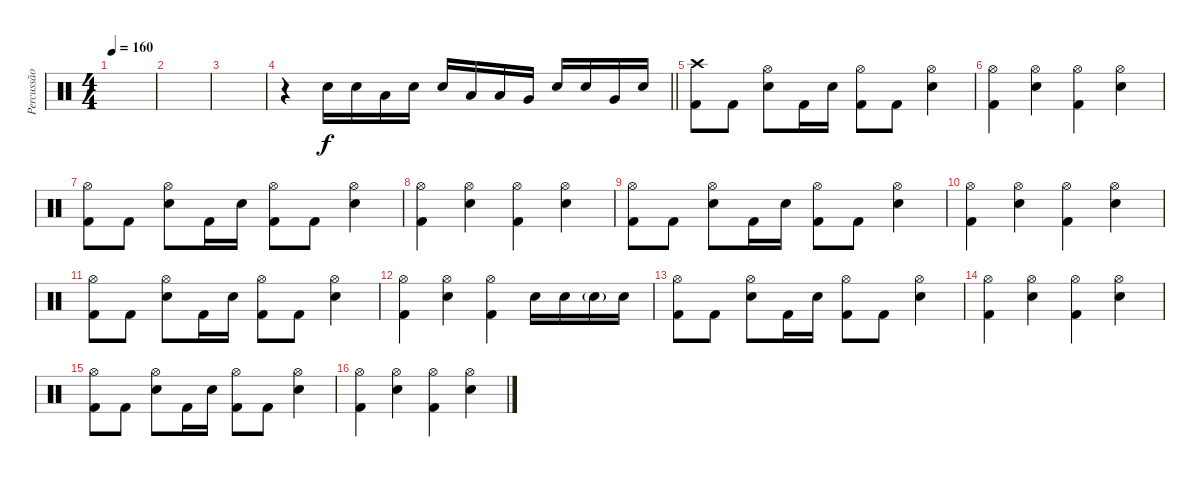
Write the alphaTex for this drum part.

\track ("Percussão" "Percussão") {instrument percussion}
\staff {score}
\articulation defaults
\ts (4 4)
\tempo 160
\clef neutral
\ks c
|
|
|
\barLineRight lightlight
r.4 "Electric Snare (hit)".16 "Electric Snare (hit)".16 "Low Tom (hit)".16 "Electric Snare (hit)".16 "Electric Snare (hit)".16 "Low Tom (hit)".16 "Low Tom (hit)".16 "Very Low Tom (hit)".16 "Electric Snare (hit)".16 "Electric Snare (hit)".16 "Very Low Tom (hit)".16 "Electric Snare (hit)".16 |
("Crash high (hit)" "Kick (hit) 2").8 "Kick (hit) 2".8 ("Hi-Hat (open)" "Electric Snare (hit)").8 "Kick (hit) 2".16 "Electric Snare (hit)".16 ("Hi-Hat (open)" "Kick (hit) 2").8 "Kick (hit) 2".8 ("Hi-Hat (open)" "Electric Snare (hit)").4 |
("Hi-Hat (open)" "Kick (hit) 2").4 ("Hi-Hat (open)" "Electric Snare (hit)").4 ("Hi-Hat (open)" "Kick (hit) 2").4 ("Hi-Hat (open)" "Electric Snare (hit)").4 |
("Hi-Hat (open)" "Kick (hit) 2").8 "Kick (hit) 2".8 ("Hi-Hat (open)" "Electric Snare (hit)").8 "Kick (hit) 2".16 "Electric Snare (hit)".16 ("Hi-Hat (open)" "Kick (hit) 2").8 "Kick (hit) 2".8 ("Hi-Hat (open)" "Electric Snare (hit)").4 |
("Hi-Hat (open)" "Kick (hit) 2").4 ("Hi-Hat (open)" "Electric Snare (hit)").4 ("Hi-Hat (open)" "Kick (hit) 2").4 ("Hi-Hat (open)" "Electric Snare (hit)").4 |
("Hi-Hat (open)" "Kick (hit) 2").8 "Kick (hit) 2".8 ("Hi-Hat (open)" "Electric Snare (hit)").8 "Kick (hit) 2".16 "Electric Snare (hit)".16 ("Hi-Hat (open)" "Kick (hit) 2").8 "Kick (hit) 2".8 ("Hi-Hat (open)" "Electric Snare (hit)").4 |
("Hi-Hat (open)" "Kick (hit) 2").4 ("Hi-Hat (open)" "Electric Snare (hit)").4 ("Hi-Hat (open)" "Kick (hit) 2").4 ("Hi-Hat (open)" "Electric Snare (hit)").4 |
("Hi-Hat (open)" "Kick (hit) 2").8 "Kick (hit) 2".8 ("Hi-Hat (open)" "Electric Snare (hit)").8 "Kick (hit) 2".16 "Electric Snare (hit)".16 ("Hi-Hat (open)" "Kick (hit) 2").8 "Kick (hit) 2".8 ("Hi-Hat (open)" "Electric Snare (hit)").4 |
("Hi-Hat (open)" "Kick (hit) 2").4 ("Hi-Hat (open)" "Electric Snare (hit)").4 ("Hi-Hat (open)" "Kick (hit) 2").4 "Electric Snare (hit)".16 "Electric Snare (hit)".16 "Electric Snare (hit)"{g}.16 "Electric Snare (hit)".16 |
("Hi-Hat (open)" "Kick (hit) 2").8 "Kick (hit) 2".8 ("Hi-Hat (open)" "Electric Snare (hit)").8 "Kick (hit) 2".16 "Electric Snare (hit)".16 ("Hi-Hat (open)" "Kick (hit) 2").8 "Kick (hit) 2".8 ("Hi-Hat (open)" "Electric Snare (hit)").4 |
("Hi-Hat (open)" "Kick (hit) 2").4 ("Hi-Hat (open)" "Electric Snare (hit)").4 ("Hi-Hat (open)" "Kick (hit) 2").4 ("Hi-Hat (open)" "Electric Snare (hit)").4 |
("Hi-Hat (open)" "Kick (hit) 2").8 "Kick (hit) 2".8 ("Hi-Hat (open)" "Electric Snare (hit)").8 "Kick (hit) 2".16 "Electric Snare (hit)".16 ("Hi-Hat (open)" "Kick (hit) 2").8 "Kick (hit) 2".8 ("Hi-Hat (open)" "Electric Snare (hit)").4 |
("Hi-Hat (open)" "Kick (hit) 2").4 ("Hi-Hat (open)" "Electric Snare (hit)").4 ("Hi-Hat (open)" "Kick (hit) 2").4 ("Hi-Hat (open)" "Electric Snare (hit)").4
